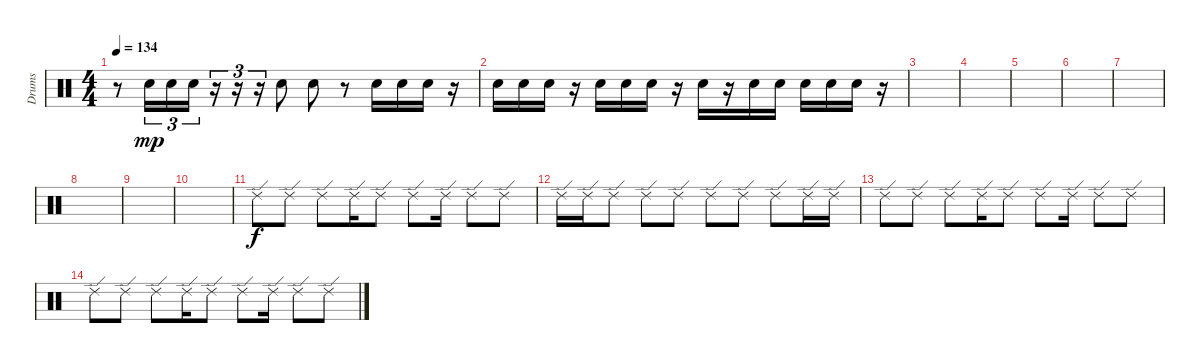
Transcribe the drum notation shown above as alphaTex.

\track ("Drums" "Drums") {instrument percussion}
\staff {score}
\articulation defaults
\ts (4 4)
\tempo 134
\clef neutral
\ks c
r.8{dy mp} "Snare (hit) 2".16{tu (3 2)} "Snare (hit) 2".16{tu (3 2)} "Snare (hit) 2".16{tu (3 2)} r.16{tu (3 2)} r.16{tu (3 2)} r.16{tu (3 2)} "Snare (hit) 2".8 "Snare (hit) 2".8 r.8 "Snare (hit) 2".16 "Snare (hit) 2".16 "Snare (hit) 2".16 r.16 |
"Snare (hit) 2".16 "Snare (hit) 2".16 "Snare (hit) 2".16 r.16 "Snare (hit) 2".16 "Snare (hit) 2".16 "Snare (hit) 2".16 r.16 "Snare (hit) 2".16 r.16 "Snare (hit) 2".16 "Snare (hit) 2".16 "Snare (hit) 2".16 "Snare (hit) 2".16 "Snare (hit) 2".16 r.16 |
|
|
|
|
|
|
|
|
"Ride (edge) 2".8{dy f} "Ride (edge) 2".8 "Ride (edge) 2".8 "Ride (edge) 2".16 "Ride (edge) 2".8 "Ride (edge) 2".8 "Ride (edge) 2".16 "Ride (edge) 2".8 "Ride (edge) 2".8 |
"Ride (edge) 2".16 "Ride (edge) 2".16 "Ride (edge) 2".8 "Ride (edge) 2".8 "Ride (edge) 2".8 "Ride (edge) 2".8 "Ride (edge) 2".8 "Ride (edge) 2".8 "Ride (edge) 2".16 "Ride (edge) 2".16 |
"Ride (edge) 2".8 "Ride (edge) 2".8 "Ride (edge) 2".8 "Ride (edge) 2".16 "Ride (edge) 2".8 "Ride (edge) 2".8 "Ride (edge) 2".16 "Ride (edge) 2".8 "Ride (edge) 2".8 |
"Ride (edge) 2".8 "Ride (edge) 2".8 "Ride (edge) 2".8 "Ride (edge) 2".16 "Ride (edge) 2".8 "Ride (edge) 2".8 "Ride (edge) 2".16 "Ride (edge) 2".8 "Ride (edge) 2".8
